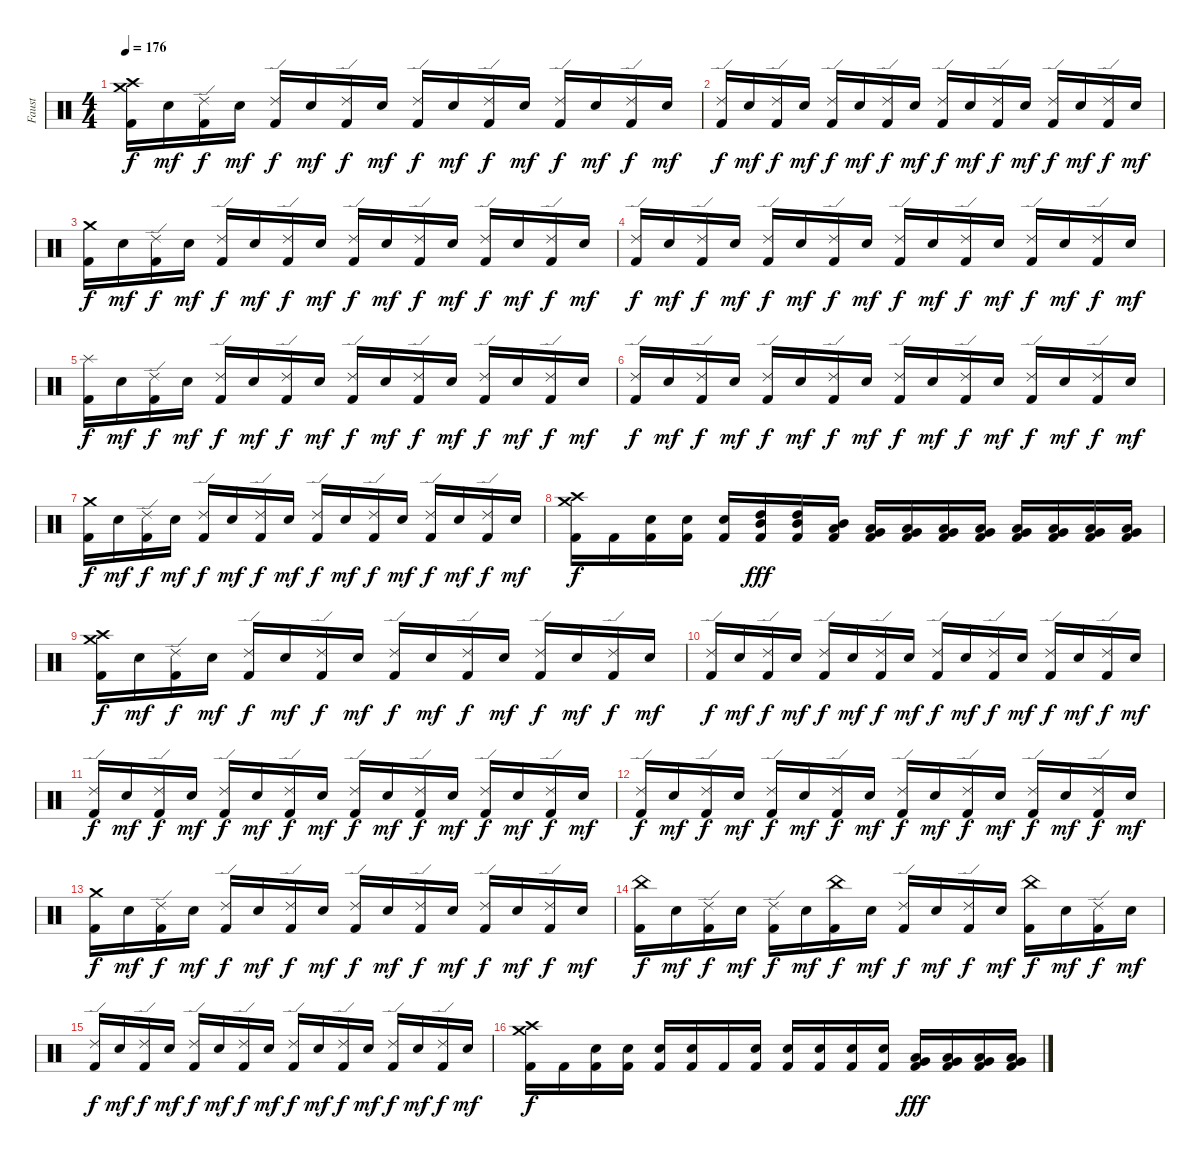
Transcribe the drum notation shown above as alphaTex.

\track ("Faust" "Faust") {instrument percussion}
\staff {score}
\articulation defaults
\ts (4 4)
\tempo 176
\clef neutral
\ks c
("Crash high (hit)" "Crash medium (hit)" "Kick (hit) 2").16{dy f} "Electric Snare (hit)".16{dy mf} ("Ride (edge) 2" "Kick (hit) 2").16{dy f} "Electric Snare (hit)".16{dy mf} ("Ride (edge) 2" "Kick (hit) 2").16{dy f} "Electric Snare (hit)".16{dy mf} ("Ride (edge) 2" "Kick (hit) 2").16{dy f} "Electric Snare (hit)".16{dy mf} ("Ride (edge) 2" "Kick (hit) 2").16{dy f} "Electric Snare (hit)".16{dy mf} ("Ride (edge) 2" "Kick (hit) 2").16{dy f} "Electric Snare (hit)".16{dy mf} ("Ride (edge) 2" "Kick (hit) 2").16{dy f} "Electric Snare (hit)".16{dy mf} ("Ride (edge) 2" "Kick (hit) 2").16{dy f} "Electric Snare (hit)".16{dy mf} |
("Ride (edge) 2" "Kick (hit) 2").16{dy f} "Electric Snare (hit)".16{dy mf} ("Ride (edge) 2" "Kick (hit) 2").16{dy f} "Electric Snare (hit)".16{dy mf} ("Ride (edge) 2" "Kick (hit) 2").16{dy f} "Electric Snare (hit)".16{dy mf} ("Ride (edge) 2" "Kick (hit) 2").16{dy f} "Electric Snare (hit)".16{dy mf} ("Ride (edge) 2" "Kick (hit) 2").16{dy f} "Electric Snare (hit)".16{dy mf} ("Ride (edge) 2" "Kick (hit) 2").16{dy f} "Electric Snare (hit)".16{dy mf} ("Ride (edge) 2" "Kick (hit) 2").16{dy f} "Electric Snare (hit)".16{dy mf} ("Ride (edge) 2" "Kick (hit) 2").16{dy f} "Electric Snare (hit)".16{dy mf} |
("Crash medium (hit)" "Kick (hit) 2").16{dy f} "Electric Snare (hit)".16{dy mf} ("Ride (edge) 2" "Kick (hit) 2").16{dy f} "Electric Snare (hit)".16{dy mf} ("Ride (edge) 2" "Kick (hit) 2").16{dy f} "Electric Snare (hit)".16{dy mf} ("Ride (edge) 2" "Kick (hit) 2").16{dy f} "Electric Snare (hit)".16{dy mf} ("Ride (edge) 2" "Kick (hit) 2").16{dy f} "Electric Snare (hit)".16{dy mf} ("Ride (edge) 2" "Kick (hit) 2").16{dy f} "Electric Snare (hit)".16{dy mf} ("Ride (edge) 2" "Kick (hit) 2").16{dy f} "Electric Snare (hit)".16{dy mf} ("Ride (edge) 2" "Kick (hit) 2").16{dy f} "Electric Snare (hit)".16{dy mf} |
("Ride (edge) 2" "Kick (hit) 2").16{dy f} "Electric Snare (hit)".16{dy mf} ("Ride (edge) 2" "Kick (hit) 2").16{dy f} "Electric Snare (hit)".16{dy mf} ("Ride (edge) 2" "Kick (hit) 2").16{dy f} "Electric Snare (hit)".16{dy mf} ("Ride (edge) 2" "Kick (hit) 2").16{dy f} "Electric Snare (hit)".16{dy mf} ("Ride (edge) 2" "Kick (hit) 2").16{dy f} "Electric Snare (hit)".16{dy mf} ("Ride (edge) 2" "Kick (hit) 2").16{dy f} "Electric Snare (hit)".16{dy mf} ("Ride (edge) 2" "Kick (hit) 2").16{dy f} "Electric Snare (hit)".16{dy mf} ("Ride (edge) 2" "Kick (hit) 2").16{dy f} "Electric Snare (hit)".16{dy mf} |
("Splash (hit)" "Kick (hit) 2").16{dy f} "Electric Snare (hit)".16{dy mf} ("Ride (edge) 2" "Kick (hit) 2").16{dy f} "Electric Snare (hit)".16{dy mf} ("Ride (edge) 2" "Kick (hit) 2").16{dy f} "Electric Snare (hit)".16{dy mf} ("Ride (edge) 2" "Kick (hit) 2").16{dy f} "Electric Snare (hit)".16{dy mf} ("Ride (edge) 2" "Kick (hit) 2").16{dy f} "Electric Snare (hit)".16{dy mf} ("Ride (edge) 2" "Kick (hit) 2").16{dy f} "Electric Snare (hit)".16{dy mf} ("Ride (edge) 2" "Kick (hit) 2").16{dy f} "Electric Snare (hit)".16{dy mf} ("Ride (edge) 2" "Kick (hit) 2").16{dy f} "Electric Snare (hit)".16{dy mf} |
("Ride (edge) 2" "Kick (hit) 2").16{dy f} "Electric Snare (hit)".16{dy mf} ("Ride (edge) 2" "Kick (hit) 2").16{dy f} "Electric Snare (hit)".16{dy mf} ("Ride (edge) 2" "Kick (hit) 2").16{dy f} "Electric Snare (hit)".16{dy mf} ("Ride (edge) 2" "Kick (hit) 2").16{dy f} "Electric Snare (hit)".16{dy mf} ("Ride (edge) 2" "Kick (hit) 2").16{dy f} "Electric Snare (hit)".16{dy mf} ("Ride (edge) 2" "Kick (hit) 2").16{dy f} "Electric Snare (hit)".16{dy mf} ("Ride (edge) 2" "Kick (hit) 2").16{dy f} "Electric Snare (hit)".16{dy mf} ("Ride (edge) 2" "Kick (hit) 2").16{dy f} "Electric Snare (hit)".16{dy mf} |
("Crash medium (hit)" "Kick (hit) 2").16{dy f} "Electric Snare (hit)".16{dy mf} ("Ride (edge) 2" "Kick (hit) 2").16{dy f} "Electric Snare (hit)".16{dy mf} ("Ride (edge) 2" "Kick (hit) 2").16{dy f} "Electric Snare (hit)".16{dy mf} ("Ride (edge) 2" "Kick (hit) 2").16{dy f} "Electric Snare (hit)".16{dy mf} ("Ride (edge) 2" "Kick (hit) 2").16{dy f} "Electric Snare (hit)".16{dy mf} ("Ride (edge) 2" "Kick (hit) 2").16{dy f} "Electric Snare (hit)".16{dy mf} ("Ride (edge) 2" "Kick (hit) 2").16{dy f} "Electric Snare (hit)".16{dy mf} ("Ride (edge) 2" "Kick (hit) 2").16{dy f} "Electric Snare (hit)".16{dy mf} |
("Crash medium (hit)" "Crash high (hit)" "Kick (hit) 2").16{dy f} "Kick (hit) 2".16 ("Electric Snare (hit)" "Kick (hit) 2").16 ("Electric Snare (hit)" "Kick (hit) 2").16 ("Electric Snare (hit)" "Kick (hit) 2").16 ("High Tom (hit)" "Mid Tom (hit)" "Kick (hit) 2").16{dy fff} ("High Tom (hit)" "Mid Tom (hit)" "Kick (hit) 2").16 ("Mid Tom (hit)" "Low Tom (hit)" "Kick (hit) 2").16 ("Low Tom (hit)" "Very Low Tom (hit)" "Kick (hit) 2").16 ("Low Tom (hit)" "Very Low Tom (hit)" "Kick (hit) 2").16 ("Low Tom (hit)" "Very Low Tom (hit)" "Kick (hit) 2").16 ("Low Tom (hit)" "Very Low Tom (hit)" "Kick (hit) 2").16 ("Very Low Tom (hit)" "Low Floor Tom (hit)" "Kick (hit) 2").16 ("Very Low Tom (hit)" "Low Floor Tom (hit)" "Kick (hit) 2").16 ("Very Low Tom (hit)" "Low Floor Tom (hit)" "Kick (hit) 2").16 ("Very Low Tom (hit)" "Low Floor Tom (hit)" "Kick (hit) 2").16 |
("Crash high (hit)" "Crash medium (hit)" "Kick (hit) 2").16{dy f} "Electric Snare (hit)".16{dy mf} ("Ride (edge) 2" "Kick (hit) 2").16{dy f} "Electric Snare (hit)".16{dy mf} ("Ride (edge) 2" "Kick (hit) 2").16{dy f} "Electric Snare (hit)".16{dy mf} ("Ride (edge) 2" "Kick (hit) 2").16{dy f} "Electric Snare (hit)".16{dy mf} ("Ride (edge) 2" "Kick (hit) 2").16{dy f} "Electric Snare (hit)".16{dy mf} ("Ride (edge) 2" "Kick (hit) 2").16{dy f} "Electric Snare (hit)".16{dy mf} ("Ride (edge) 2" "Kick (hit) 2").16{dy f} "Electric Snare (hit)".16{dy mf} ("Ride (edge) 2" "Kick (hit) 2").16{dy f} "Electric Snare (hit)".16{dy mf} |
("Ride (edge) 2" "Kick (hit) 2").16{dy f} "Electric Snare (hit)".16{dy mf} ("Ride (edge) 2" "Kick (hit) 2").16{dy f} "Electric Snare (hit)".16{dy mf} ("Ride (edge) 2" "Kick (hit) 2").16{dy f} "Electric Snare (hit)".16{dy mf} ("Ride (edge) 2" "Kick (hit) 2").16{dy f} "Electric Snare (hit)".16{dy mf} ("Ride (edge) 2" "Kick (hit) 2").16{dy f} "Electric Snare (hit)".16{dy mf} ("Ride (edge) 2" "Kick (hit) 2").16{dy f} "Electric Snare (hit)".16{dy mf} ("Ride (edge) 2" "Kick (hit) 2").16{dy f} "Electric Snare (hit)".16{dy mf} ("Ride (edge) 2" "Kick (hit) 2").16{dy f} "Electric Snare (hit)".16{dy mf} |
("Ride (edge) 2" "Kick (hit) 2").16{dy f} "Electric Snare (hit)".16{dy mf} ("Ride (edge) 2" "Kick (hit) 2").16{dy f} "Electric Snare (hit)".16{dy mf} ("Ride (edge) 2" "Kick (hit) 2").16{dy f} "Electric Snare (hit)".16{dy mf} ("Ride (edge) 2" "Kick (hit) 2").16{dy f} "Electric Snare (hit)".16{dy mf} ("Ride (edge) 2" "Kick (hit) 2").16{dy f} "Electric Snare (hit)".16{dy mf} ("Ride (edge) 2" "Kick (hit) 2").16{dy f} "Electric Snare (hit)".16{dy mf} ("Ride (edge) 2" "Kick (hit) 2").16{dy f} "Electric Snare (hit)".16{dy mf} ("Ride (edge) 2" "Kick (hit) 2").16{dy f} "Electric Snare (hit)".16{dy mf} |
("Ride (edge) 2" "Kick (hit) 2").16{dy f} "Electric Snare (hit)".16{dy mf} ("Ride (edge) 2" "Kick (hit) 2").16{dy f} "Electric Snare (hit)".16{dy mf} ("Ride (edge) 2" "Kick (hit) 2").16{dy f} "Electric Snare (hit)".16{dy mf} ("Ride (edge) 2" "Kick (hit) 2").16{dy f} "Electric Snare (hit)".16{dy mf} ("Ride (edge) 2" "Kick (hit) 2").16{dy f} "Electric Snare (hit)".16{dy mf} ("Ride (edge) 2" "Kick (hit) 2").16{dy f} "Electric Snare (hit)".16{dy mf} ("Ride (edge) 2" "Kick (hit) 2").16{dy f} "Electric Snare (hit)".16{dy mf} ("Ride (edge) 2" "Kick (hit) 2").16{dy f} "Electric Snare (hit)".16{dy mf} |
("Crash medium (hit)" "Kick (hit) 2").16{dy f} "Electric Snare (hit)".16{dy mf} ("Ride (edge) 2" "Kick (hit) 2").16{dy f} "Electric Snare (hit)".16{dy mf} ("Ride (edge) 2" "Kick (hit) 2").16{dy f} "Electric Snare (hit)".16{dy mf} ("Ride (edge) 2" "Kick (hit) 2").16{dy f} "Electric Snare (hit)".16{dy mf} ("Ride (edge) 2" "Kick (hit) 2").16{dy f} "Electric Snare (hit)".16{dy mf} ("Ride (edge) 2" "Kick (hit) 2").16{dy f} "Electric Snare (hit)".16{dy mf} ("Ride (edge) 2" "Kick (hit) 2").16{dy f} "Electric Snare (hit)".16{dy mf} ("Ride (edge) 2" "Kick (hit) 2").16{dy f} "Electric Snare (hit)".16{dy mf} |
("China (hit)" "Kick (hit) 2").16{dy f} "Electric Snare (hit)".16{dy mf} ("Ride (edge) 2" "Kick (hit) 2").16{dy f} "Electric Snare (hit)".16{dy mf} ("Ride (edge) 2" "Kick (hit) 2").16{dy f} "Electric Snare (hit)".16{dy mf} ("China (hit)" "Kick (hit) 2").16{dy f} "Electric Snare (hit)".16{dy mf} ("Ride (edge) 2" "Kick (hit) 2").16{dy f} "Electric Snare (hit)".16{dy mf} ("Ride (edge) 2" "Kick (hit) 2").16{dy f} "Electric Snare (hit)".16{dy mf} ("China (hit)" "Kick (hit) 2").16{dy f} "Electric Snare (hit)".16{dy mf} ("Ride (edge) 2" "Kick (hit) 2").16{dy f} "Electric Snare (hit)".16{dy mf} |
("Ride (edge) 2" "Kick (hit) 2").16{dy f} "Electric Snare (hit)".16{dy mf} ("Ride (edge) 2" "Kick (hit) 2").16{dy f} "Electric Snare (hit)".16{dy mf} ("Ride (edge) 2" "Kick (hit) 2").16{dy f} "Electric Snare (hit)".16{dy mf} ("Ride (edge) 2" "Kick (hit) 2").16{dy f} "Electric Snare (hit)".16{dy mf} ("Ride (edge) 2" "Kick (hit) 2").16{dy f} "Electric Snare (hit)".16{dy mf} ("Ride (edge) 2" "Kick (hit) 2").16{dy f} "Electric Snare (hit)".16{dy mf} ("Ride (edge) 2" "Kick (hit) 2").16{dy f} "Electric Snare (hit)".16{dy mf} ("Ride (edge) 2" "Kick (hit) 2").16{dy f} "Electric Snare (hit)".16{dy mf} |
("Crash high (hit)" "Crash medium (hit)" "Kick (hit) 2").16{dy f} "Kick (hit) 2".16 ("Electric Snare (hit)" "Kick (hit) 2").16 ("Electric Snare (hit)" "Kick (hit) 2").16 ("Electric Snare (hit)" "Kick (hit) 2").16 ("Electric Snare (hit)" "Kick (hit) 2").16 "Kick (hit) 2".16 ("Electric Snare (hit)" "Kick (hit) 2").16 ("Electric Snare (hit)" "Kick (hit) 2").16 ("Electric Snare (hit)" "Kick (hit) 2").16 ("Electric Snare (hit)" "Kick (hit) 2").16 ("Electric Snare (hit)" "Kick (hit) 2").16 ("Very Low Tom (hit)" "Low Tom (hit)" "Kick (hit) 2").16{dy fff} ("Very Low Tom (hit)" "Low Tom (hit)" "Kick (hit) 2").16 ("Low Floor Tom (hit)" "Very Low Tom (hit)" "Kick (hit) 2").16 ("Low Floor Tom (hit)" "Very Low Tom (hit)" "Kick (hit) 2").16
